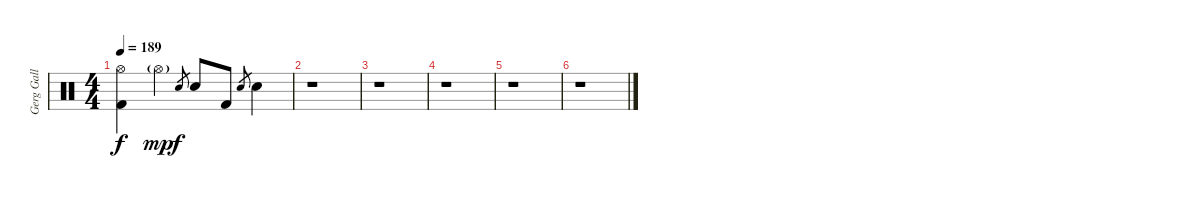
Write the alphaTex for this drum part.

\track ("Gerg Gall (Drums)" "Gerg Gall ") {instrument percussion}
\staff {score}
\articulation defaults
\ts (4 4)
\tempo 189
\clef neutral
\ks c
("Hi-Hat (open)" "Kick (hit) 2").4{dy f} "Hi-Hat (open)"{g}.4{dy mp} "Electric Snare (hit)".8{gr dy f} "Snare (hit) 2".8 "Kick (hit) 2".8 "Electric Snare (hit)".8{gr} "Snare (hit) 2".4 |
r.1 |
r.1 |
r.1 |
r.1 |
r.1
